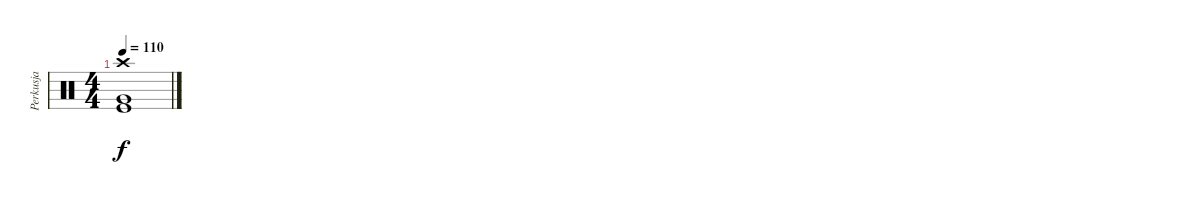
\track ("Perkusja" "Perkusja") {instrument percussion}
\staff {score}
\articulation defaults
\ts (4 4)
\tempo 110
\clef neutral
\ks c
("Crash high (hit)" "Very Low Tom (hit)" "Kick (hit)").1{dy f}
